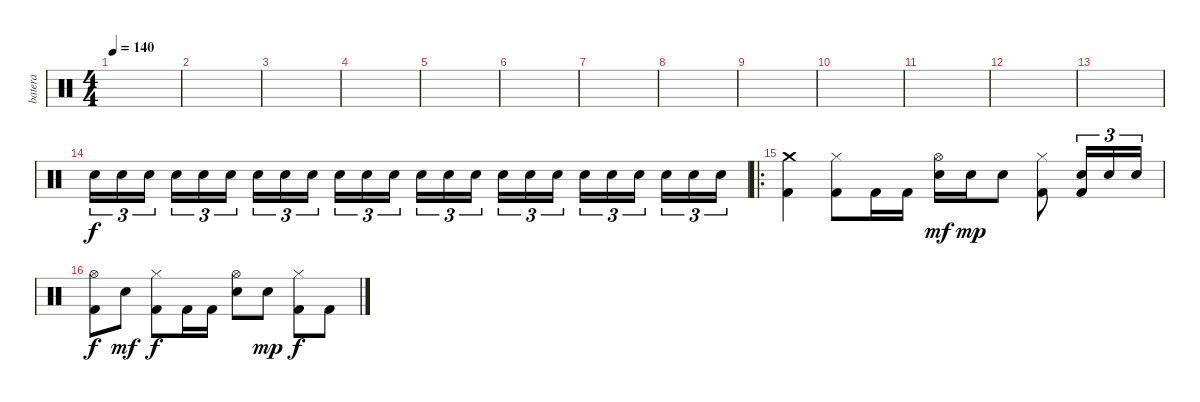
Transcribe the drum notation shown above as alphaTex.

\track ("batera" "batera") {instrument percussion}
\staff {score}
\articulation defaults
\ts (4 4)
\tempo 140
\clef neutral
\ks c
|
|
|
|
|
|
|
|
|
|
|
|
|
"Electric Snare (hit)".16{tu (3 2) volume 7} "Electric Snare (hit)".16{tu (3 2)} "Electric Snare (hit)".16{tu (3 2)} "Electric Snare (hit)".16{tu (3 2)} "Electric Snare (hit)".16{tu (3 2)} "Electric Snare (hit)".16{tu (3 2)} "Electric Snare (hit)".16{tu (3 2)} "Electric Snare (hit)".16{tu (3 2)} "Electric Snare (hit)".16{tu (3 2)} "Electric Snare (hit)".16{tu (3 2)} "Electric Snare (hit)".16{tu (3 2)} "Electric Snare (hit)".16{tu (3 2)} "Electric Snare (hit)".16{tu (3 2)} "Electric Snare (hit)".16{tu (3 2)} "Electric Snare (hit)".16{tu (3 2)} "Electric Snare (hit)".16{tu (3 2)} "Electric Snare (hit)".16{tu (3 2)} "Electric Snare (hit)".16{tu (3 2)} "Electric Snare (hit)".16{tu (3 2)} "Electric Snare (hit)".16{tu (3 2)} "Electric Snare (hit)".16{tu (3 2)} "Electric Snare (hit)".16{tu (3 2)} "Electric Snare (hit)".16{tu (3 2)} "Electric Snare (hit)".16{tu (3 2)} |
\ro
("Crash medium (hit)" "Kick (hit) 2").4{volume 13} ("Hi-Hat (closed)" "Kick (hit) 2").8 "Kick (hit) 2".16 "Kick (hit) 2".16 ("Hi-Hat (open)" "Electric Snare (hit)").16{dy mf} "Electric Snare (hit)".16{dy mp} "Electric Snare (hit)".8 ("Hi-Hat (closed)" "Kick (hit) 2").8 ("Electric Snare (hit)" "Kick (hit) 2").16{tu (3 2)} "Electric Snare (hit)".16{tu (3 2)} "Electric Snare (hit)".16{tu (3 2)} |
("Hi-Hat (open)" "Kick (hit) 2").8{dy f} "Electric Snare (hit)".8{dy mf} ("Hi-Hat (closed)" "Kick (hit) 2").8{dy f} "Kick (hit) 2".16 "Kick (hit) 2".16 ("Hi-Hat (open)" "Electric Snare (hit)").8 "Electric Snare (hit)".8{dy mp} ("Hi-Hat (closed)" "Kick (hit) 2").8{dy f} "Kick (hit) 2".8
